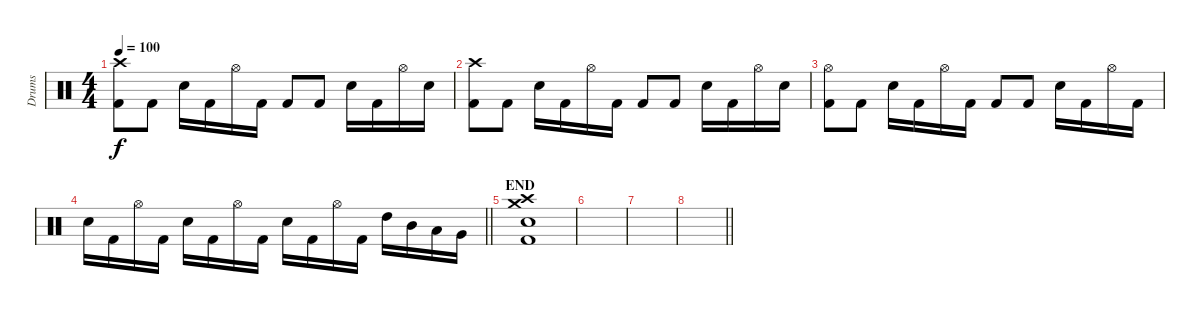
\track ("Drums" "Drums") {instrument percussion}
\staff {score}
\articulation defaults
\ts (4 4)
\tempo 100
\clef neutral
\ks c
("Crash high (hit)" "Kick (hit) 2").8{dy f} "Kick (hit) 2".8 "Snare (hit) 2".16 "Kick (hit) 2".16 "Hi-Hat (open)".16 "Kick (hit) 2".16 "Kick (hit) 2".8 "Kick (hit) 2".8 "Snare (hit) 2".16 "Kick (hit) 2".16 "Hi-Hat (open)".16 "Snare (hit) 2".16 |
("Crash high (hit)" "Kick (hit) 2").8 "Kick (hit) 2".8 "Snare (hit) 2".16 "Kick (hit) 2".16 "Hi-Hat (open)".16 "Kick (hit) 2".16 "Kick (hit) 2".8 "Kick (hit) 2".8 "Snare (hit) 2".16 "Kick (hit) 2".16 "Hi-Hat (open)".16 "Snare (hit) 2".16 |
("Hi-Hat (open)" "Kick (hit) 2").8 "Kick (hit) 2".8 "Snare (hit) 2".16 "Kick (hit) 2".16 "Hi-Hat (open)".16 "Kick (hit) 2".16 "Kick (hit) 2".8 "Kick (hit) 2".8 "Snare (hit) 2".16 "Kick (hit) 2".16 "Hi-Hat (open)".16 "Kick (hit) 2".16 |
\barLineRight lightlight "Snare (hit) 2".16 "Kick (hit) 2".16 "Hi-Hat (open)".16 "Kick (hit) 2".16 "Snare (hit) 2".16 "Kick (hit) 2".16 "Hi-Hat (open)".16 "Kick (hit) 2".16 "Snare (hit) 2".16 "Kick (hit) 2".16 "Hi-Hat (open)".16 "Kick (hit) 2".16 "High Tom (hit)".16 "Mid Tom (hit)".16 "Low Tom (hit)".16 "Very Low Tom (hit)".16
|
\section ("" "END")
("Crash medium (hit)" "Crash high (hit)" "Snare (hit) 2" "Kick (hit) 2").1 |
|
|
\barLineRight lightlight
